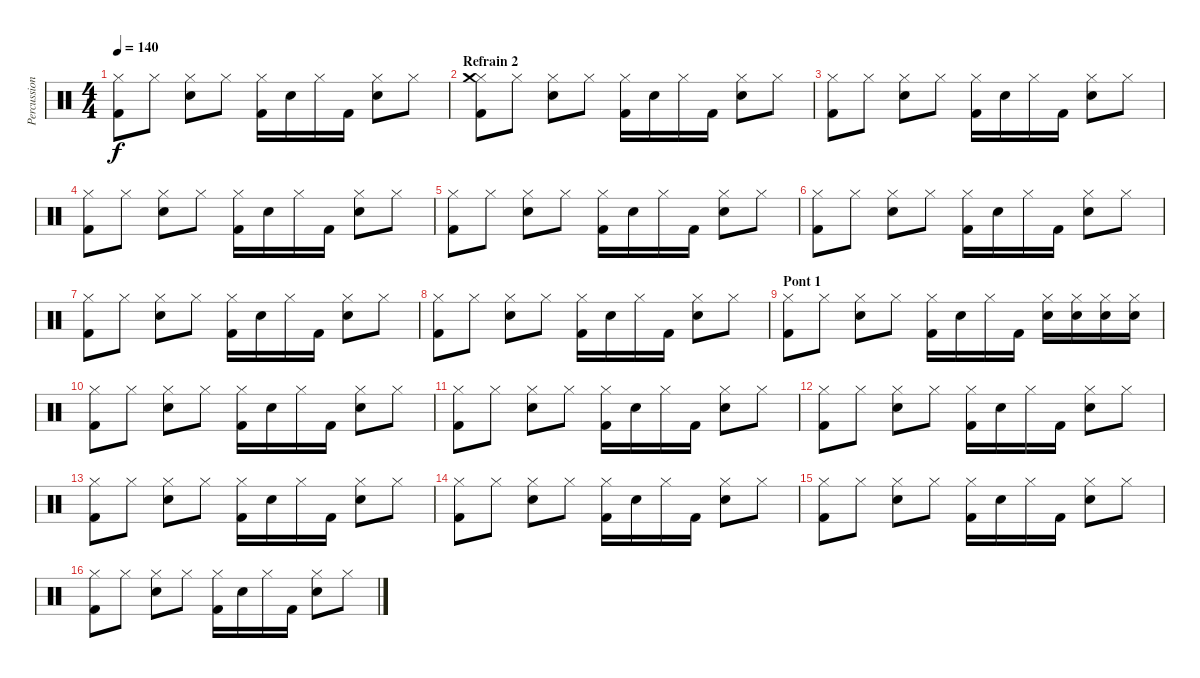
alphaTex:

\track ("Percussions" "Percussion") {instrument percussion}
\staff {score}
\articulation defaults
\ts (4 4)
\tempo 140
\clef neutral
\ks c
("Hi-Hat (closed)" "Kick (hit) 2").8{dy f} "Hi-Hat (closed)".8 ("Hi-Hat (closed)" "Electric Snare (hit)").8 "Hi-Hat (closed)".8 ("Hi-Hat (closed)" "Kick (hit) 2").16 "Electric Snare (hit)".16 "Hi-Hat (closed)".16 "Kick (hit) 2".16 ("Hi-Hat (closed)" "Electric Snare (hit)").8 "Hi-Hat (closed)".8 |
\section ("" "Refrain 2")
("Hi-Hat (closed)" "Crash medium (hit)" "Kick (hit) 2").8 "Hi-Hat (closed)".8 ("Hi-Hat (closed)" "Electric Snare (hit)").8 "Hi-Hat (closed)".8 ("Hi-Hat (closed)" "Kick (hit) 2").16 "Electric Snare (hit)".16 "Hi-Hat (closed)".16 "Kick (hit) 2".16 ("Hi-Hat (closed)" "Electric Snare (hit)").8 "Hi-Hat (closed)".8 |
("Hi-Hat (closed)" "Kick (hit) 2").8 "Hi-Hat (closed)".8 ("Hi-Hat (closed)" "Electric Snare (hit)").8 "Hi-Hat (closed)".8 ("Hi-Hat (closed)" "Kick (hit) 2").16 "Electric Snare (hit)".16 "Hi-Hat (closed)".16 "Kick (hit) 2".16 ("Hi-Hat (closed)" "Electric Snare (hit)").8 "Hi-Hat (closed)".8 |
("Hi-Hat (closed)" "Kick (hit) 2").8 "Hi-Hat (closed)".8 ("Hi-Hat (closed)" "Electric Snare (hit)").8 "Hi-Hat (closed)".8 ("Hi-Hat (closed)" "Kick (hit) 2").16 "Electric Snare (hit)".16 "Hi-Hat (closed)".16 "Kick (hit) 2".16 ("Hi-Hat (closed)" "Electric Snare (hit)").8 "Hi-Hat (closed)".8 |
("Hi-Hat (closed)" "Kick (hit) 2").8 "Hi-Hat (closed)".8 ("Hi-Hat (closed)" "Electric Snare (hit)").8 "Hi-Hat (closed)".8 ("Hi-Hat (closed)" "Kick (hit) 2").16 "Electric Snare (hit)".16 "Hi-Hat (closed)".16 "Kick (hit) 2".16 ("Hi-Hat (closed)" "Electric Snare (hit)").8 "Hi-Hat (closed)".8 |
("Hi-Hat (closed)" "Kick (hit) 2").8 "Hi-Hat (closed)".8 ("Hi-Hat (closed)" "Electric Snare (hit)").8 "Hi-Hat (closed)".8 ("Hi-Hat (closed)" "Kick (hit) 2").16 "Electric Snare (hit)".16 "Hi-Hat (closed)".16 "Kick (hit) 2".16 ("Hi-Hat (closed)" "Electric Snare (hit)").8 "Hi-Hat (closed)".8 |
("Hi-Hat (closed)" "Kick (hit) 2").8 "Hi-Hat (closed)".8 ("Hi-Hat (closed)" "Electric Snare (hit)").8 "Hi-Hat (closed)".8 ("Hi-Hat (closed)" "Kick (hit) 2").16 "Electric Snare (hit)".16 "Hi-Hat (closed)".16 "Kick (hit) 2".16 ("Hi-Hat (closed)" "Electric Snare (hit)").8 "Hi-Hat (closed)".8 |
("Hi-Hat (closed)" "Kick (hit) 2").8 "Hi-Hat (closed)".8 ("Hi-Hat (closed)" "Electric Snare (hit)").8 "Hi-Hat (closed)".8 ("Hi-Hat (closed)" "Kick (hit) 2").16 "Electric Snare (hit)".16 "Hi-Hat (closed)".16 "Kick (hit) 2".16 ("Hi-Hat (closed)" "Electric Snare (hit)").8 "Hi-Hat (closed)".8 |
\section ("" "Pont 1")
("Hi-Hat (closed)" "Kick (hit) 2").8 "Hi-Hat (closed)".8 ("Hi-Hat (closed)" "Electric Snare (hit)").8 "Hi-Hat (closed)".8 ("Hi-Hat (closed)" "Kick (hit) 2").16 "Electric Snare (hit)".16 "Hi-Hat (closed)".16 "Kick (hit) 2".16 ("Hi-Hat (closed)" "Electric Snare (hit)").16 ("Hi-Hat (closed)" "Electric Snare (hit)").16 ("Hi-Hat (closed)" "Electric Snare (hit)").16 ("Hi-Hat (closed)" "Electric Snare (hit)").16 |
("Hi-Hat (closed)" "Kick (hit) 2").8 "Hi-Hat (closed)".8 ("Hi-Hat (closed)" "Electric Snare (hit)").8 "Hi-Hat (closed)".8 ("Hi-Hat (closed)" "Kick (hit) 2").16 "Electric Snare (hit)".16 "Hi-Hat (closed)".16 "Kick (hit) 2".16 ("Hi-Hat (closed)" "Electric Snare (hit)").8 "Hi-Hat (closed)".8 |
("Hi-Hat (closed)" "Kick (hit) 2").8 "Hi-Hat (closed)".8 ("Hi-Hat (closed)" "Electric Snare (hit)").8 "Hi-Hat (closed)".8 ("Hi-Hat (closed)" "Kick (hit) 2").16 "Electric Snare (hit)".16 "Hi-Hat (closed)".16 "Kick (hit) 2".16 ("Hi-Hat (closed)" "Electric Snare (hit)").8 "Hi-Hat (closed)".8 |
("Hi-Hat (closed)" "Kick (hit) 2").8 "Hi-Hat (closed)".8 ("Hi-Hat (closed)" "Electric Snare (hit)").8 "Hi-Hat (closed)".8 ("Hi-Hat (closed)" "Kick (hit) 2").16 "Electric Snare (hit)".16 "Hi-Hat (closed)".16 "Kick (hit) 2".16 ("Hi-Hat (closed)" "Electric Snare (hit)").8 "Hi-Hat (closed)".8 |
("Hi-Hat (closed)" "Kick (hit) 2").8 "Hi-Hat (closed)".8 ("Hi-Hat (closed)" "Electric Snare (hit)").8 "Hi-Hat (closed)".8 ("Hi-Hat (closed)" "Kick (hit) 2").16 "Electric Snare (hit)".16 "Hi-Hat (closed)".16 "Kick (hit) 2".16 ("Hi-Hat (closed)" "Electric Snare (hit)").8 "Hi-Hat (closed)".8 |
("Hi-Hat (closed)" "Kick (hit) 2").8 "Hi-Hat (closed)".8 ("Hi-Hat (closed)" "Electric Snare (hit)").8 "Hi-Hat (closed)".8 ("Hi-Hat (closed)" "Kick (hit) 2").16 "Electric Snare (hit)".16 "Hi-Hat (closed)".16 "Kick (hit) 2".16 ("Hi-Hat (closed)" "Electric Snare (hit)").8 "Hi-Hat (closed)".8 |
("Hi-Hat (closed)" "Kick (hit) 2").8 "Hi-Hat (closed)".8 ("Hi-Hat (closed)" "Electric Snare (hit)").8 "Hi-Hat (closed)".8 ("Hi-Hat (closed)" "Kick (hit) 2").16 "Electric Snare (hit)".16 "Hi-Hat (closed)".16 "Kick (hit) 2".16 ("Hi-Hat (closed)" "Electric Snare (hit)").8 "Hi-Hat (closed)".8 |
("Hi-Hat (closed)" "Kick (hit) 2").8 "Hi-Hat (closed)".8 ("Hi-Hat (closed)" "Electric Snare (hit)").8 "Hi-Hat (closed)".8 ("Hi-Hat (closed)" "Kick (hit) 2").16 "Electric Snare (hit)".16 "Hi-Hat (closed)".16 "Kick (hit) 2".16 ("Hi-Hat (closed)" "Electric Snare (hit)").8 "Hi-Hat (closed)".8
